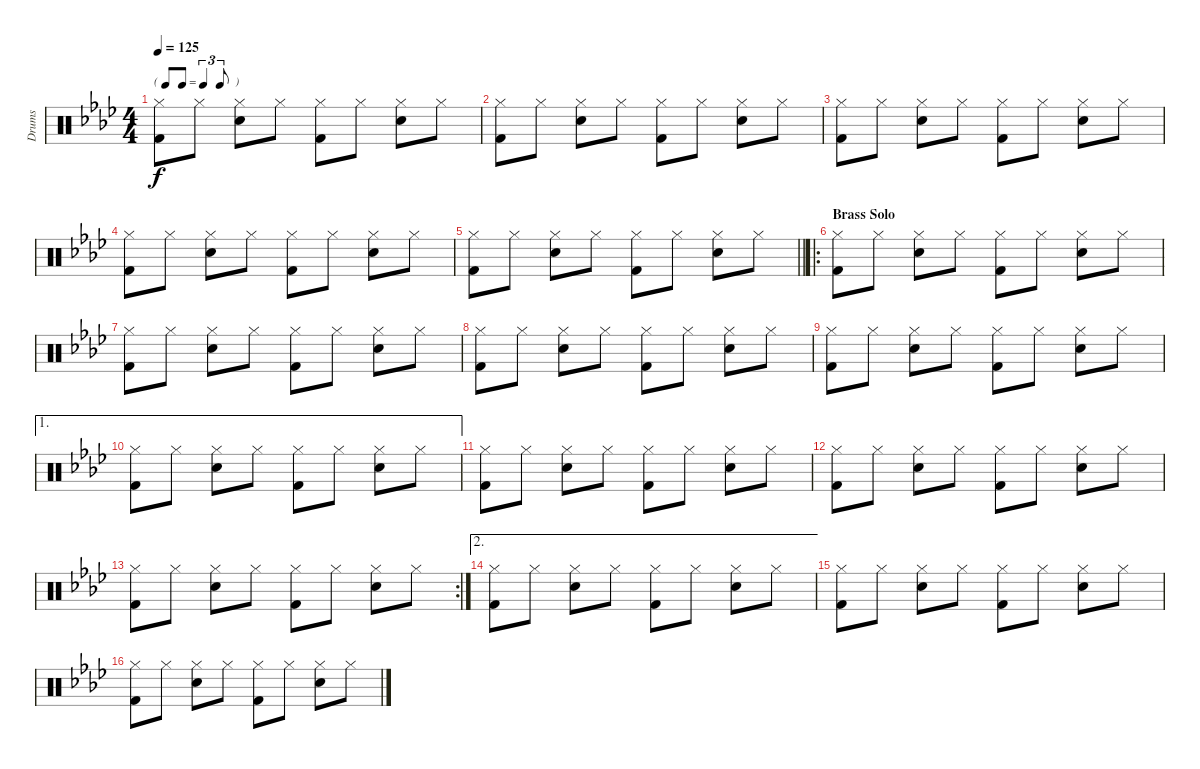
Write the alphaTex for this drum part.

\track ("Drums" "Drums") {instrument percussion}
\staff {score}
\articulation defaults
\ts (4 4)
\tf triplet8th
\tempo 125
\clef neutral
\ks ab
("Hi-Hat (closed)" "Kick (hit) 2").8{dy f} "Hi-Hat (closed)".8 ("Hi-Hat (closed)" "Electric Snare (hit)").8 "Hi-Hat (closed)".8 ("Hi-Hat (closed)" "Kick (hit) 2").8 "Hi-Hat (closed)".8 ("Hi-Hat (closed)" "Electric Snare (hit)").8 "Hi-Hat (closed)".8 |
("Hi-Hat (closed)" "Kick (hit) 2").8 "Hi-Hat (closed)".8 ("Hi-Hat (closed)" "Electric Snare (hit)").8 "Hi-Hat (closed)".8 ("Hi-Hat (closed)" "Kick (hit) 2").8 "Hi-Hat (closed)".8 ("Hi-Hat (closed)" "Electric Snare (hit)").8 "Hi-Hat (closed)".8 |
("Hi-Hat (closed)" "Kick (hit) 2").8 "Hi-Hat (closed)".8 ("Hi-Hat (closed)" "Electric Snare (hit)").8 "Hi-Hat (closed)".8 ("Hi-Hat (closed)" "Kick (hit) 2").8 "Hi-Hat (closed)".8 ("Hi-Hat (closed)" "Electric Snare (hit)").8 "Hi-Hat (closed)".8 |
("Hi-Hat (closed)" "Kick (hit) 2").8 "Hi-Hat (closed)".8 ("Hi-Hat (closed)" "Electric Snare (hit)").8 "Hi-Hat (closed)".8 ("Hi-Hat (closed)" "Kick (hit) 2").8 "Hi-Hat (closed)".8 ("Hi-Hat (closed)" "Electric Snare (hit)").8 "Hi-Hat (closed)".8 |
\barLineRight lightlight
("Hi-Hat (closed)" "Kick (hit) 2").8 "Hi-Hat (closed)".8 ("Hi-Hat (closed)" "Electric Snare (hit)").8 "Hi-Hat (closed)".8 ("Hi-Hat (closed)" "Kick (hit) 2").8 "Hi-Hat (closed)".8 ("Hi-Hat (closed)" "Electric Snare (hit)").8 "Hi-Hat (closed)".8 |
\ro
\section ("" "Brass Solo")
("Hi-Hat (closed)" "Kick (hit) 2").8 "Hi-Hat (closed)".8 ("Hi-Hat (closed)" "Electric Snare (hit)").8 "Hi-Hat (closed)".8 ("Hi-Hat (closed)" "Kick (hit) 2").8 "Hi-Hat (closed)".8 ("Hi-Hat (closed)" "Electric Snare (hit)").8 "Hi-Hat (closed)".8 |
("Hi-Hat (closed)" "Kick (hit) 2").8 "Hi-Hat (closed)".8 ("Hi-Hat (closed)" "Electric Snare (hit)").8 "Hi-Hat (closed)".8 ("Hi-Hat (closed)" "Kick (hit) 2").8 "Hi-Hat (closed)".8 ("Hi-Hat (closed)" "Electric Snare (hit)").8 "Hi-Hat (closed)".8 |
("Hi-Hat (closed)" "Kick (hit) 2").8 "Hi-Hat (closed)".8 ("Hi-Hat (closed)" "Electric Snare (hit)").8 "Hi-Hat (closed)".8 ("Hi-Hat (closed)" "Kick (hit) 2").8 "Hi-Hat (closed)".8 ("Hi-Hat (closed)" "Electric Snare (hit)").8 "Hi-Hat (closed)".8 |
("Hi-Hat (closed)" "Kick (hit) 2").8 "Hi-Hat (closed)".8 ("Hi-Hat (closed)" "Electric Snare (hit)").8 "Hi-Hat (closed)".8 ("Hi-Hat (closed)" "Kick (hit) 2").8 "Hi-Hat (closed)".8 ("Hi-Hat (closed)" "Electric Snare (hit)").8 "Hi-Hat (closed)".8 |
\ae 1
("Hi-Hat (closed)" "Kick (hit) 2").8 "Hi-Hat (closed)".8 ("Hi-Hat (closed)" "Electric Snare (hit)").8 "Hi-Hat (closed)".8 ("Hi-Hat (closed)" "Kick (hit) 2").8 "Hi-Hat (closed)".8 ("Hi-Hat (closed)" "Electric Snare (hit)").8 "Hi-Hat (closed)".8 |
("Hi-Hat (closed)" "Kick (hit) 2").8 "Hi-Hat (closed)".8 ("Hi-Hat (closed)" "Electric Snare (hit)").8 "Hi-Hat (closed)".8 ("Hi-Hat (closed)" "Kick (hit) 2").8 "Hi-Hat (closed)".8 ("Hi-Hat (closed)" "Electric Snare (hit)").8 "Hi-Hat (closed)".8 |
("Hi-Hat (closed)" "Kick (hit) 2").8 "Hi-Hat (closed)".8 ("Hi-Hat (closed)" "Electric Snare (hit)").8 "Hi-Hat (closed)".8 ("Hi-Hat (closed)" "Kick (hit) 2").8 "Hi-Hat (closed)".8 ("Hi-Hat (closed)" "Electric Snare (hit)").8 "Hi-Hat (closed)".8 |
\rc 2
("Hi-Hat (closed)" "Kick (hit) 2").8 "Hi-Hat (closed)".8 ("Hi-Hat (closed)" "Electric Snare (hit)").8 "Hi-Hat (closed)".8 ("Hi-Hat (closed)" "Kick (hit) 2").8 "Hi-Hat (closed)".8 ("Hi-Hat (closed)" "Electric Snare (hit)").8 "Hi-Hat (closed)".8 |
\ae 2
("Hi-Hat (closed)" "Kick (hit) 2").8 "Hi-Hat (closed)".8 ("Hi-Hat (closed)" "Electric Snare (hit)").8 "Hi-Hat (closed)".8 ("Hi-Hat (closed)" "Kick (hit) 2").8 "Hi-Hat (closed)".8 ("Hi-Hat (closed)" "Electric Snare (hit)").8 "Hi-Hat (closed)".8 |
("Hi-Hat (closed)" "Kick (hit) 2").8 "Hi-Hat (closed)".8 ("Hi-Hat (closed)" "Electric Snare (hit)").8 "Hi-Hat (closed)".8 ("Hi-Hat (closed)" "Kick (hit) 2").8 "Hi-Hat (closed)".8 ("Hi-Hat (closed)" "Electric Snare (hit)").8 "Hi-Hat (closed)".8 |
("Hi-Hat (closed)" "Kick (hit) 2").8 "Hi-Hat (closed)".8 ("Hi-Hat (closed)" "Electric Snare (hit)").8 "Hi-Hat (closed)".8 ("Hi-Hat (closed)" "Kick (hit) 2").8 "Hi-Hat (closed)".8 ("Hi-Hat (closed)" "Electric Snare (hit)").8 "Hi-Hat (closed)".8
